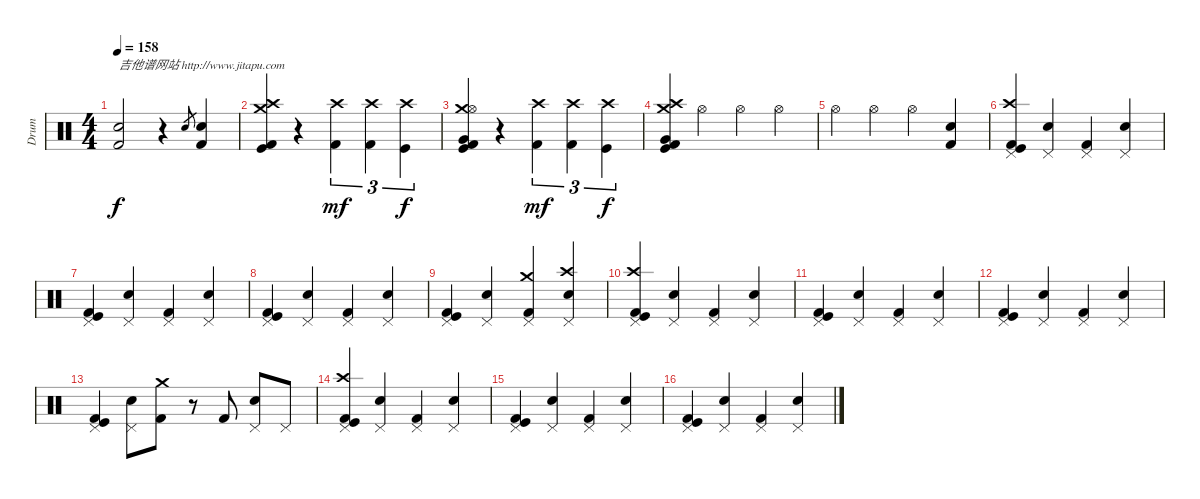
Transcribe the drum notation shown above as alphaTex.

\track ("Drum" "Drum") {instrument percussion}
\staff {score}
\articulation defaults
\ts (4 4)
\tempo 158
\clef neutral
\ks c
("Kick (hit) 2" "Electric Snare (hit)").2{txt "吉他谱网站 http://www.jitapu.com" dy f} r.4 "Electric Snare (hit)".8{gr} ("Kick (hit) 2" "Electric Snare (hit)").4 |
("Crash high (hit)" "Crash medium (hit)" "Kick (hit) 2" "Kick (hit)").4 r.4 ("Crash high (hit)" "Kick (hit) 2").4{tu (3 2) dy mf} ("Crash high (hit)" "Kick (hit) 2").4{tu (3 2)} ("Crash high (hit)" "Kick (hit)").4{tu (3 2) dy f} |
("Crash medium (hit)" "Hi-Hat (open)" "Very Low Tom (hit)" "Kick (hit)" "Kick (hit) 2").4 r.4 ("Crash high (hit)" "Kick (hit) 2").4{tu (3 2) dy mf} ("Crash high (hit)" "Kick (hit) 2").4{tu (3 2)} ("Crash high (hit)" "Kick (hit)").4{tu (3 2) dy f} |
("Very Low Tom (hit)" "Crash high (hit)" "Crash medium (hit)" "Kick (hit) 2" "Kick (hit)").4 "Hi-Hat (open)".4 "Hi-Hat (open)".4 "Hi-Hat (open)".4 |
"Hi-Hat (open)".4 "Hi-Hat (open)".4 "Hi-Hat (open)".4 ("Electric Snare (hit)" "Kick (hit) 2").4 |
("Crash high (hit)" "Kick (hit) 2" "Kick (hit)" "Pedal Hi-Hat (hit)").4 ("Pedal Hi-Hat (hit)" "Electric Snare (hit)").4 ("Kick (hit) 2" "Pedal Hi-Hat (hit)").4 ("Pedal Hi-Hat (hit)" "Electric Snare (hit)").4 |
("Kick (hit) 2" "Kick (hit)" "Pedal Hi-Hat (hit)").4 ("Pedal Hi-Hat (hit)" "Electric Snare (hit)").4 ("Kick (hit) 2" "Pedal Hi-Hat (hit)").4 ("Pedal Hi-Hat (hit)" "Electric Snare (hit)").4 |
("Kick (hit) 2" "Kick (hit)" "Pedal Hi-Hat (hit)").4 ("Pedal Hi-Hat (hit)" "Electric Snare (hit)").4 ("Kick (hit) 2" "Pedal Hi-Hat (hit)").4 ("Pedal Hi-Hat (hit)" "Electric Snare (hit)").4 |
("Kick (hit) 2" "Kick (hit)" "Pedal Hi-Hat (hit)").4 ("Pedal Hi-Hat (hit)" "Electric Snare (hit)").4 ("Crash medium (hit)" "Kick (hit) 2" "Pedal Hi-Hat (hit)").4 ("Crash high (hit)" "Pedal Hi-Hat (hit)" "Electric Snare (hit)").4 |
("Crash high (hit)" "Kick (hit) 2" "Kick (hit)" "Pedal Hi-Hat (hit)").4 ("Pedal Hi-Hat (hit)" "Electric Snare (hit)").4 ("Kick (hit) 2" "Pedal Hi-Hat (hit)").4 ("Pedal Hi-Hat (hit)" "Electric Snare (hit)").4 |
("Kick (hit) 2" "Kick (hit)" "Pedal Hi-Hat (hit)").4 ("Pedal Hi-Hat (hit)" "Electric Snare (hit)").4 ("Kick (hit) 2" "Pedal Hi-Hat (hit)").4 ("Pedal Hi-Hat (hit)" "Electric Snare (hit)").4 |
("Kick (hit) 2" "Kick (hit)" "Pedal Hi-Hat (hit)").4 ("Pedal Hi-Hat (hit)" "Electric Snare (hit)").4 ("Kick (hit) 2" "Pedal Hi-Hat (hit)").4 ("Pedal Hi-Hat (hit)" "Electric Snare (hit)").4 |
("Kick (hit) 2" "Kick (hit)" "Pedal Hi-Hat (hit)").4 ("Pedal Hi-Hat (hit)" "Electric Snare (hit)").8 ("Crash medium (hit)" "Kick (hit) 2").8 r.8 "Kick (hit) 2".8 ("Pedal Hi-Hat (hit)" "Electric Snare (hit)").8 "Pedal Hi-Hat (hit)".8 |
("Crash high (hit)" "Kick (hit) 2" "Kick (hit)" "Pedal Hi-Hat (hit)").4 ("Pedal Hi-Hat (hit)" "Electric Snare (hit)").4 ("Kick (hit) 2" "Pedal Hi-Hat (hit)").4 ("Pedal Hi-Hat (hit)" "Electric Snare (hit)").4 |
("Kick (hit) 2" "Kick (hit)" "Pedal Hi-Hat (hit)").4 ("Pedal Hi-Hat (hit)" "Electric Snare (hit)").4 ("Kick (hit) 2" "Pedal Hi-Hat (hit)").4 ("Pedal Hi-Hat (hit)" "Electric Snare (hit)").4 |
("Kick (hit) 2" "Kick (hit)" "Pedal Hi-Hat (hit)").4 ("Pedal Hi-Hat (hit)" "Electric Snare (hit)").4 ("Kick (hit) 2" "Pedal Hi-Hat (hit)").4 ("Pedal Hi-Hat (hit)" "Electric Snare (hit)").4
